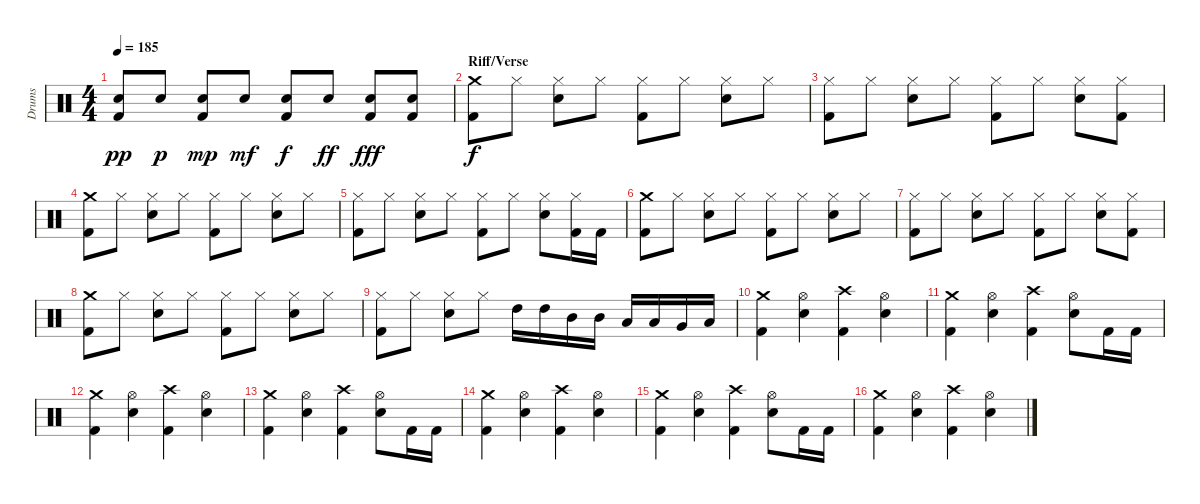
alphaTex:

\track ("Drums" "Drums") {instrument percussion}
\staff {score}
\articulation defaults
\ts (4 4)
\tempo 185
\clef neutral
\ks c
("Electric Snare (hit)" "Kick (hit) 2").8{dy pp} "Electric Snare (hit)".8{dy p} ("Electric Snare (hit)" "Kick (hit) 2").8{dy mp} "Electric Snare (hit)".8{dy mf} ("Electric Snare (hit)" "Kick (hit) 2").8{dy f} "Electric Snare (hit)".8{dy ff} ("Electric Snare (hit)" "Kick (hit) 2").8{dy fff} ("Electric Snare (hit)" "Kick (hit) 2").8 |
\section ("" "Riff/Verse")
("Crash medium (hit)" "Kick (hit) 2").8{dy f} "Hi-Hat (closed)".8 ("Hi-Hat (closed)" "Electric Snare (hit)").8 "Hi-Hat (closed)".8 ("Hi-Hat (closed)" "Kick (hit) 2").8 "Hi-Hat (closed)".8 ("Hi-Hat (closed)" "Electric Snare (hit)").8 "Hi-Hat (closed)".8 |
("Hi-Hat (closed)" "Kick (hit) 2").8 "Hi-Hat (closed)".8 ("Hi-Hat (closed)" "Electric Snare (hit)").8 "Hi-Hat (closed)".8 ("Hi-Hat (closed)" "Kick (hit) 2").8 "Hi-Hat (closed)".8 ("Hi-Hat (closed)" "Electric Snare (hit)").8 ("Hi-Hat (closed)" "Kick (hit) 2").8 |
("Crash medium (hit)" "Kick (hit) 2").8 "Hi-Hat (closed)".8 ("Hi-Hat (closed)" "Electric Snare (hit)").8 "Hi-Hat (closed)".8 ("Hi-Hat (closed)" "Kick (hit) 2").8 "Hi-Hat (closed)".8 ("Hi-Hat (closed)" "Electric Snare (hit)").8 "Hi-Hat (closed)".8 |
("Hi-Hat (closed)" "Kick (hit) 2").8 "Hi-Hat (closed)".8 ("Hi-Hat (closed)" "Electric Snare (hit)").8 "Hi-Hat (closed)".8 ("Hi-Hat (closed)" "Kick (hit) 2").8 "Hi-Hat (closed)".8 ("Hi-Hat (closed)" "Electric Snare (hit)").8 ("Hi-Hat (closed)" "Kick (hit) 2").16 "Kick (hit) 2".16 |
("Crash medium (hit)" "Kick (hit) 2").8 "Hi-Hat (closed)".8 ("Hi-Hat (closed)" "Electric Snare (hit)").8 "Hi-Hat (closed)".8 ("Hi-Hat (closed)" "Kick (hit) 2").8 "Hi-Hat (closed)".8 ("Hi-Hat (closed)" "Electric Snare (hit)").8 "Hi-Hat (closed)".8 |
("Hi-Hat (closed)" "Kick (hit) 2").8 "Hi-Hat (closed)".8 ("Hi-Hat (closed)" "Electric Snare (hit)").8 "Hi-Hat (closed)".8 ("Hi-Hat (closed)" "Kick (hit) 2").8 "Hi-Hat (closed)".8 ("Hi-Hat (closed)" "Electric Snare (hit)").8 ("Hi-Hat (closed)" "Kick (hit) 2").8 |
("Crash medium (hit)" "Kick (hit) 2").8 "Hi-Hat (closed)".8 ("Hi-Hat (closed)" "Electric Snare (hit)").8 "Hi-Hat (closed)".8 ("Hi-Hat (closed)" "Kick (hit) 2").8 "Hi-Hat (closed)".8 ("Hi-Hat (closed)" "Electric Snare (hit)").8 "Hi-Hat (closed)".8 |
("Hi-Hat (closed)" "Kick (hit) 2").8 "Hi-Hat (closed)".8 ("Hi-Hat (closed)" "Electric Snare (hit)").8 "Hi-Hat (closed)".8 "High Tom (hit)".16 "High Tom (hit)".16 "Mid Tom (hit)".16 "Mid Tom (hit)".16 "Low Tom (hit)".16 "Low Tom (hit)".16 "Very Low Tom (hit)".16 "Low Floor Tom (hit)".16 |
("Crash medium (hit)" "Kick (hit) 2").4 ("Hi-Hat (open)" "Electric Snare (hit)").4 ("Crash high (hit)" "Kick (hit) 2").4 ("Hi-Hat (open)" "Electric Snare (hit)").4 |
("Crash medium (hit)" "Kick (hit) 2").4 ("Hi-Hat (open)" "Electric Snare (hit)").4 ("Crash high (hit)" "Kick (hit) 2").4 ("Hi-Hat (open)" "Electric Snare (hit)").8 "Kick (hit) 2".16 "Kick (hit) 2".16 |
("Crash medium (hit)" "Kick (hit) 2").4 ("Hi-Hat (open)" "Electric Snare (hit)").4 ("Crash high (hit)" "Kick (hit) 2").4 ("Hi-Hat (open)" "Electric Snare (hit)").4 |
("Crash medium (hit)" "Kick (hit) 2").4 ("Hi-Hat (open)" "Electric Snare (hit)").4 ("Crash high (hit)" "Kick (hit) 2").4 ("Hi-Hat (open)" "Electric Snare (hit)").8 "Kick (hit) 2".16 "Kick (hit) 2".16 |
("Crash medium (hit)" "Kick (hit) 2").4 ("Hi-Hat (open)" "Electric Snare (hit)").4 ("Crash high (hit)" "Kick (hit) 2").4 ("Hi-Hat (open)" "Electric Snare (hit)").4 |
("Crash medium (hit)" "Kick (hit) 2").4 ("Hi-Hat (open)" "Electric Snare (hit)").4 ("Crash high (hit)" "Kick (hit) 2").4 ("Hi-Hat (open)" "Electric Snare (hit)").8 "Kick (hit) 2".16 "Kick (hit) 2".16 |
("Crash medium (hit)" "Kick (hit) 2").4 ("Hi-Hat (open)" "Electric Snare (hit)").4 ("Crash high (hit)" "Kick (hit) 2").4 ("Hi-Hat (open)" "Electric Snare (hit)").4
